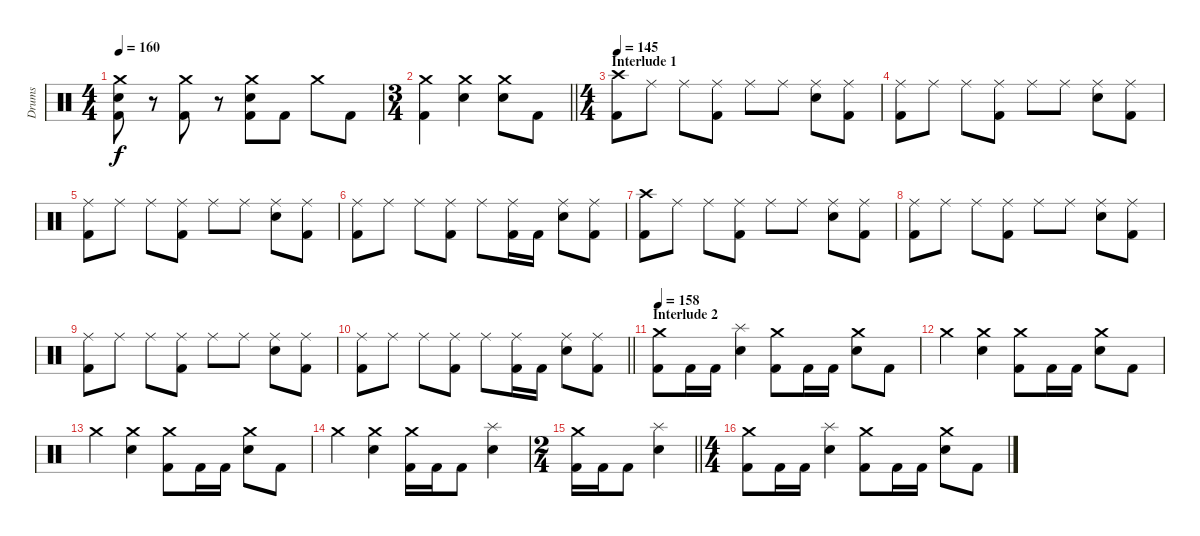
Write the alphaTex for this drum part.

\track ("Drums" "Drums") {instrument percussion}
\staff {score}
\articulation defaults
\ts (4 4)
\tempo 160
\clef neutral
\ks c
("Crash medium (hit)" "Electric Snare (hit)" "Kick (hit) 2").8{dy f} r.8 ("Crash medium (hit)" "Kick (hit) 2").8 r.8 ("Crash medium (hit)" "Electric Snare (hit)" "Kick (hit) 2").8 "Kick (hit) 2".8 "Crash medium (hit)".8 "Kick (hit) 2".8 |
\ts (3 4)
\barLineRight lightlight
("Crash medium (hit)" "Kick (hit) 2").4 ("Crash medium (hit)" "Electric Snare (hit)").4 ("Crash medium (hit)" "Electric Snare (hit)").8 "Kick (hit) 2".8 |
\ts (4 4)
\section ("" "Interlude 1")
\tempo 145
("Crash high (hit)" "Kick (hit) 2").8 "Ride (middle)".8 "Ride (middle)".8 ("Ride (middle)" "Kick (hit) 2").8 "Ride (middle)".8 "Ride (middle)".8 ("Ride (middle)" "Electric Snare (hit)").8 ("Ride (middle)" "Kick (hit) 2").8 |
("Ride (middle)" "Kick (hit) 2").8 "Ride (middle)".8 "Ride (middle)".8 ("Ride (middle)" "Kick (hit) 2").8 "Ride (middle)".8 "Ride (middle)".8 ("Ride (middle)" "Electric Snare (hit)").8 ("Ride (middle)" "Kick (hit) 2").8 |
("Ride (middle)" "Kick (hit) 2").8 "Ride (middle)".8 "Ride (middle)".8 ("Ride (middle)" "Kick (hit) 2").8 "Ride (middle)".8 "Ride (middle)".8 ("Ride (middle)" "Electric Snare (hit)").8 ("Ride (middle)" "Kick (hit) 2").8 |
("Ride (middle)" "Kick (hit) 2").8 "Ride (middle)".8 "Ride (middle)".8 ("Ride (middle)" "Kick (hit) 2").8 "Ride (middle)".8 ("Ride (middle)" "Kick (hit) 2").16 "Kick (hit) 2".16 ("Ride (middle)" "Electric Snare (hit)").8 ("Ride (middle)" "Kick (hit) 2").8 |
("Crash high (hit)" "Kick (hit) 2").8 "Ride (middle)".8 "Ride (middle)".8 ("Ride (middle)" "Kick (hit) 2").8 "Ride (middle)".8 "Ride (middle)".8 ("Ride (middle)" "Electric Snare (hit)").8 ("Ride (middle)" "Kick (hit) 2").8 |
("Ride (middle)" "Kick (hit) 2").8 "Ride (middle)".8 "Ride (middle)".8 ("Ride (middle)" "Kick (hit) 2").8 "Ride (middle)".8 "Ride (middle)".8 ("Ride (middle)" "Electric Snare (hit)").8 ("Ride (middle)" "Kick (hit) 2").8 |
("Ride (middle)" "Kick (hit) 2").8 "Ride (middle)".8 "Ride (middle)".8 ("Ride (middle)" "Kick (hit) 2").8 "Ride (middle)".8 "Ride (middle)".8 ("Ride (middle)" "Electric Snare (hit)").8 ("Ride (middle)" "Kick (hit) 2").8 |
\barLineRight lightlight
("Ride (middle)" "Kick (hit) 2").8 "Ride (middle)".8 "Ride (middle)".8 ("Ride (middle)" "Kick (hit) 2").8 "Ride (middle)".8 ("Ride (middle)" "Kick (hit) 2").16 "Kick (hit) 2".16 ("Ride (middle)" "Electric Snare (hit)").8 ("Ride (middle)" "Kick (hit) 2").8 |
\section ("" "Interlude 2")
\tempo 158
("Crash medium (hit)" "Kick (hit) 2").8 "Kick (hit) 2".16 "Kick (hit) 2".16 ("Splash (hit)" "Electric Snare (hit)").4 ("Crash medium (hit)" "Kick (hit) 2").8 "Kick (hit) 2".16 "Kick (hit) 2".16 ("Crash medium (hit)" "Electric Snare (hit)").8 "Kick (hit) 2".8 |
"Crash medium (hit)".4 ("Crash medium (hit)" "Electric Snare (hit)").4 ("Crash medium (hit)" "Kick (hit) 2").8 "Kick (hit) 2".16 "Kick (hit) 2".16 ("Crash medium (hit)" "Electric Snare (hit)").8 "Kick (hit) 2".8 |
"Crash medium (hit)".4 ("Crash medium (hit)" "Electric Snare (hit)").4 ("Crash medium (hit)" "Kick (hit) 2").8 "Kick (hit) 2".16 "Kick (hit) 2".16 ("Crash medium (hit)" "Electric Snare (hit)").8 "Kick (hit) 2".8 |
"Crash medium (hit)".4 ("Crash medium (hit)" "Electric Snare (hit)").4 ("Crash medium (hit)" "Kick (hit) 2").16 "Kick (hit) 2".16 "Kick (hit) 2".8 ("Splash (hit)" "Electric Snare (hit)").4 |
\ts (2 4)
\barLineRight lightlight
("Crash medium (hit)" "Kick (hit) 2").16 "Kick (hit) 2".16 "Kick (hit) 2".8 ("Splash (hit)" "Electric Snare (hit)").4 |
\ts (4 4)
("Crash medium (hit)" "Kick (hit) 2").8 "Kick (hit) 2".16 "Kick (hit) 2".16 ("Splash (hit)" "Electric Snare (hit)").4 ("Crash medium (hit)" "Kick (hit) 2").8 "Kick (hit) 2".16 "Kick (hit) 2".16 ("Crash medium (hit)" "Electric Snare (hit)").8 "Kick (hit) 2".8
